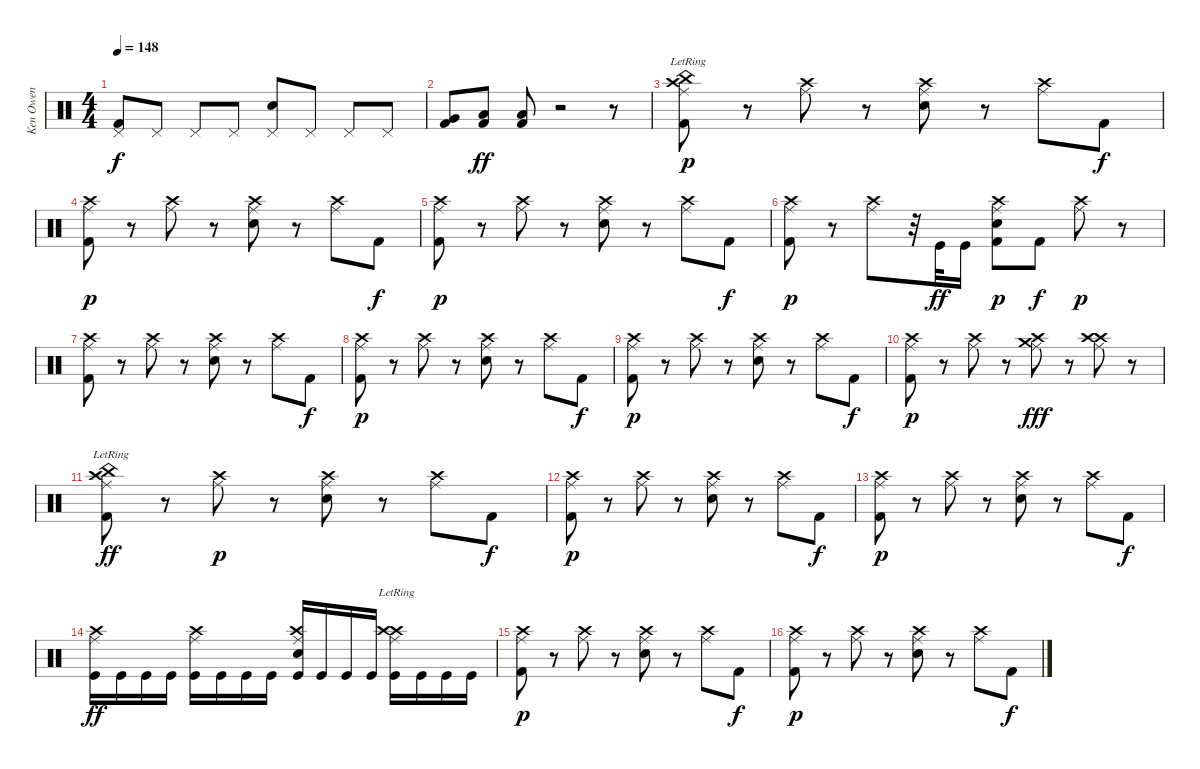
\track ("Ken Owen" "Ken Owen") {instrument percussion}
\staff {score}
\articulation defaults
\ts (4 4)
\tempo 148
\clef neutral
\ks c
("Pedal Hi-Hat (hit)" "Kick (hit) 2").8{dy f} "Pedal Hi-Hat (hit)".8 "Pedal Hi-Hat (hit)".8 "Pedal Hi-Hat (hit)".8 ("Pedal Hi-Hat (hit)" "Snare (hit) 2").8 "Pedal Hi-Hat (hit)".8 "Pedal Hi-Hat (hit)".8 "Pedal Hi-Hat (hit)".8 |
("Kick (hit) 2" "Very Low Tom (hit)").8 ("Kick (hit) 2" "Low Floor Tom (hit)").8{dy ff} ("Kick (hit) 2" "Low Floor Tom (hit)").8 r.2 r.8 |
("Crash high (hit)" "Ride (middle)" "Kick (hit) 2" "China (hit)"{lr}).8{dy p} r.8 ("Crash high (hit)" "Ride (middle)").8 r.8 ("Crash high (hit)" "Ride (middle)" "Snare (hit) 2").8 r.8 ("Crash high (hit)" "Ride (middle)").8 "Kick (hit) 2".8{dy f} |
("Crash high (hit)" "Ride (middle)" "Kick (hit) 2").8{dy p} r.8 ("Crash high (hit)" "Ride (middle)").8 r.8 ("Crash high (hit)" "Ride (middle)" "Snare (hit) 2").8 r.8 ("Crash high (hit)" "Ride (middle)").8 "Kick (hit) 2".8{dy f} |
("Crash high (hit)" "Ride (middle)" "Kick (hit) 2").8{dy p} r.8 ("Crash high (hit)" "Ride (middle)").8 r.8 ("Crash high (hit)" "Ride (middle)" "Snare (hit) 2").8 r.8 ("Crash high (hit)" "Ride (middle)").8 "Kick (hit) 2".8{dy f} |
("Crash high (hit)" "Ride (middle)" "Kick (hit) 2").8{dy p} r.8 ("Crash high (hit)" "Ride (middle)").8 r.32 "Kick (hit)".32{dy ff} "Kick (hit)".16 ("Crash high (hit)" "Ride (middle)" "Kick (hit) 2" "Snare (hit) 2").8{dy p} "Kick (hit) 2".8{dy f} ("Crash high (hit)" "Ride (middle)").8{dy p} r.8 |
("Crash high (hit)" "Ride (middle)" "Kick (hit) 2").8 r.8 ("Crash high (hit)" "Ride (middle)").8 r.8 ("Crash high (hit)" "Ride (middle)" "Snare (hit) 2").8 r.8 ("Crash high (hit)" "Ride (middle)").8 "Kick (hit) 2".8{dy f} |
("Crash high (hit)" "Ride (middle)" "Kick (hit) 2").8{dy p} r.8 ("Crash high (hit)" "Ride (middle)").8 r.8 ("Crash high (hit)" "Ride (middle)" "Snare (hit) 2").8 r.8 ("Crash high (hit)" "Ride (middle)").8 "Kick (hit) 2".8{dy f} |
("Crash high (hit)" "Ride (middle)" "Kick (hit) 2").8{dy p} r.8 ("Crash high (hit)" "Ride (middle)").8 r.8 ("Crash high (hit)" "Ride (middle)" "Snare (hit) 2").8 r.8 ("Crash high (hit)" "Ride (middle)").8 "Kick (hit) 2".8{dy f} |
("Crash high (hit)" "Ride (middle)" "Kick (hit) 2").8{dy p} r.8 ("Crash high (hit)" "Ride (middle)").8 r.8 ("Crash high (hit)" "Ride (middle)" "Crash medium (hit)").8{dy fff} r.8 ("Crash high (hit)" "Ride (middle)" "Crash high (hit)").8 r.8 |
("Crash high (hit)" "Ride (middle)" "Kick (hit) 2" "China (hit)"{lr}).8{dy ff} r.8 ("Crash high (hit)" "Ride (middle)").8{dy p} r.8 ("Crash high (hit)" "Ride (middle)" "Snare (hit) 2").8 r.8 ("Crash high (hit)" "Ride (middle)").8 "Kick (hit) 2".8{dy f} |
("Crash high (hit)" "Ride (middle)" "Kick (hit) 2").8{dy p} r.8 ("Crash high (hit)" "Ride (middle)").8 r.8 ("Crash high (hit)" "Ride (middle)" "Snare (hit) 2").8 r.8 ("Crash high (hit)" "Ride (middle)").8 "Kick (hit) 2".8{dy f} |
("Crash high (hit)" "Ride (middle)" "Kick (hit) 2").8{dy p} r.8 ("Crash high (hit)" "Ride (middle)").8 r.8 ("Crash high (hit)" "Ride (middle)" "Snare (hit) 2").8 r.8 ("Crash high (hit)" "Ride (middle)").8 "Kick (hit) 2".8{dy f} |
("Crash high (hit)" "Ride (middle)" "Kick (hit)").16{dy ff} "Kick (hit)".16 "Kick (hit)".16 "Kick (hit)".16 ("Crash high (hit)" "Ride (middle)" "Kick (hit)").16 "Kick (hit)".16 "Kick (hit)".16 "Kick (hit)".16 ("Crash high (hit)" "Ride (middle)" "Kick (hit)" "Snare (hit) 2").16 "Kick (hit)".16 "Kick (hit)".16 "Kick (hit)".16 ("Crash high (hit)" "Ride (middle)" "Kick (hit)" "Crash high (hit)"{lr}).16 "Kick (hit)".16 "Kick (hit)".16 "Kick (hit)".16 |
("Crash high (hit)" "Ride (middle)" "Kick (hit) 2").8{dy p} r.8 ("Crash high (hit)" "Ride (middle)").8 r.8 ("Crash high (hit)" "Ride (middle)" "Snare (hit) 2").8 r.8 ("Crash high (hit)" "Ride (middle)").8 "Kick (hit) 2".8{dy f} |
("Crash high (hit)" "Ride (middle)" "Kick (hit) 2").8{dy p} r.8 ("Crash high (hit)" "Ride (middle)").8 r.8 ("Crash high (hit)" "Ride (middle)" "Snare (hit) 2").8 r.8 ("Crash high (hit)" "Ride (middle)").8 "Kick (hit) 2".8{dy f}
